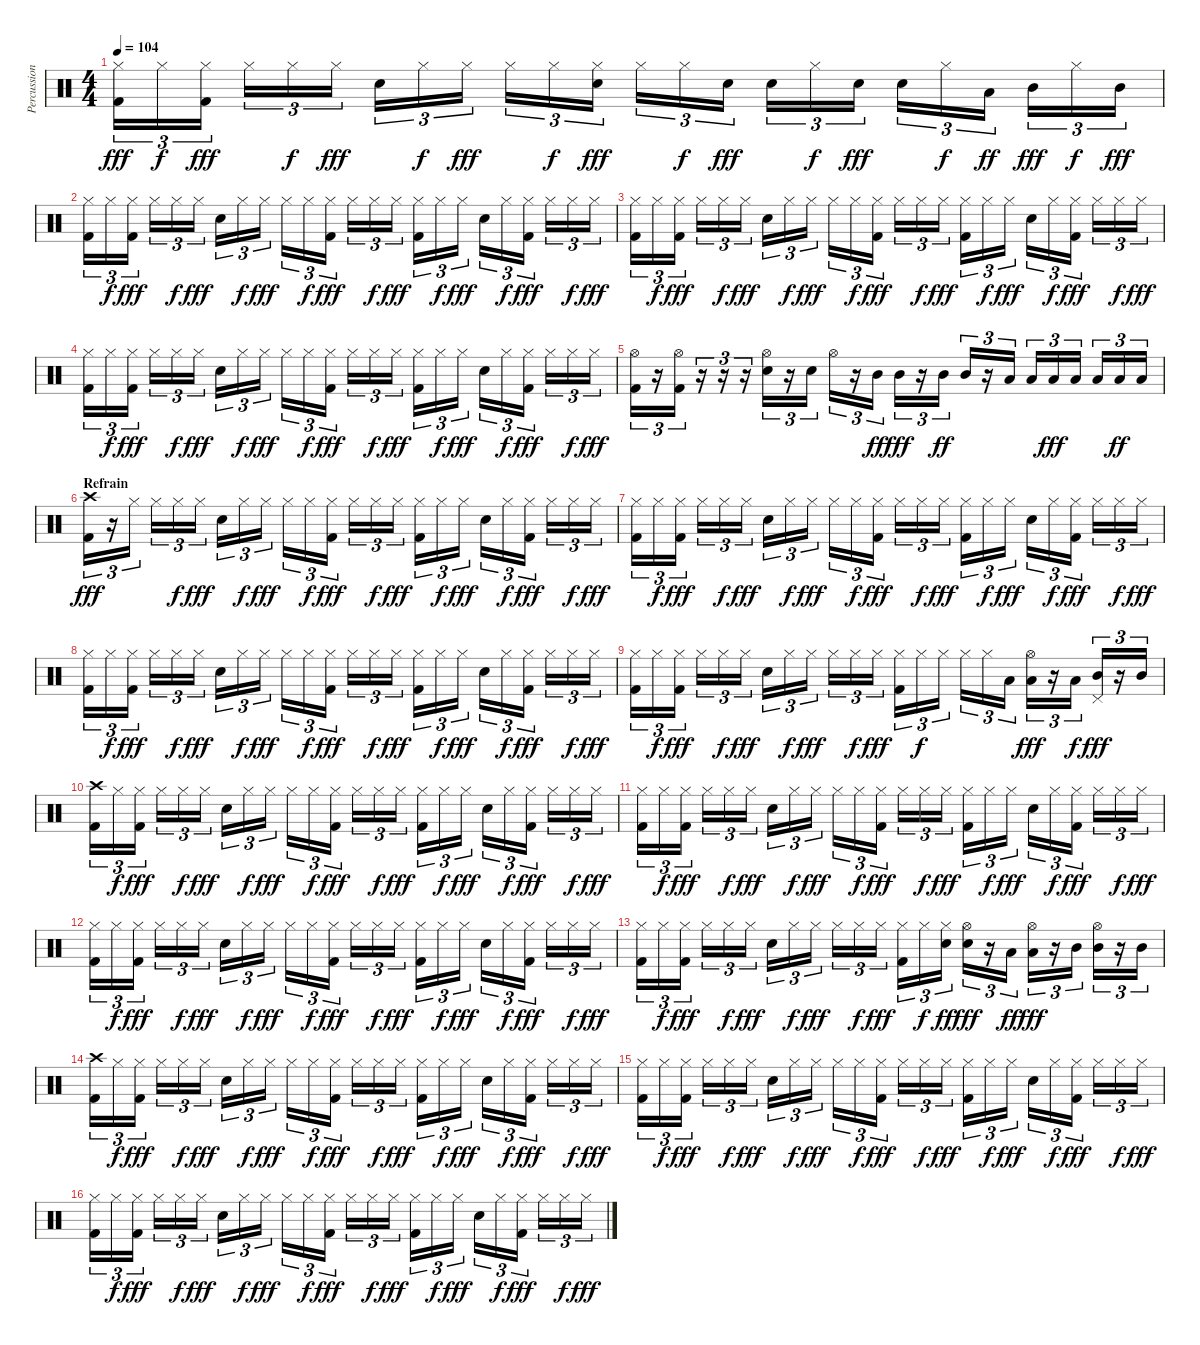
\track ("Percussions" "Percussion") {instrument percussion}
\staff {score}
\articulation defaults
\ts (4 4)
\tempo 104
\clef neutral
\ks c
("Hi-Hat (closed)" "Kick (hit) 2").16{tu (3 2) dy fff} "Hi-Hat (closed)".16{tu (3 2) dy f} ("Hi-Hat (closed)" "Kick (hit) 2").16{tu (3 2) dy fff} "Hi-Hat (closed)".16{tu (3 2)} "Hi-Hat (closed)".16{tu (3 2) dy f} "Hi-Hat (closed)".16{tu (3 2) dy fff} "Snare (hit) 2".16{tu (3 2)} "Hi-Hat (closed)".16{tu (3 2) dy f} "Hi-Hat (closed)".16{tu (3 2) dy fff} "Hi-Hat (closed)".16{tu (3 2)} "Hi-Hat (closed)".16{tu (3 2) dy f} ("Hi-Hat (closed)" "Snare (hit) 2").16{tu (3 2) dy fff} "Hi-Hat (closed)".16{tu (3 2)} "Hi-Hat (closed)".16{tu (3 2) dy f} "Snare (hit) 2".16{tu (3 2) dy fff} "Snare (hit) 2".16{tu (3 2)} "Hi-Hat (closed)".16{tu (3 2) dy f} "Snare (hit) 2".16{tu (3 2) dy fff} "Snare (hit) 2".16{tu (3 2)} "Hi-Hat (closed)".16{tu (3 2) dy f} "Low Tom (hit)".16{tu (3 2) dy ff} "Mid Tom (hit)".16{tu (3 2) dy fff} "Hi-Hat (closed)".16{tu (3 2) dy f} "Mid Tom (hit)".16{tu (3 2) dy fff} |
("Hi-Hat (closed)" "Kick (hit) 2").16{tu (3 2)} "Hi-Hat (closed)".16{tu (3 2) dy f} ("Hi-Hat (closed)" "Kick (hit) 2").16{tu (3 2) dy fff} "Hi-Hat (closed)".16{tu (3 2)} "Hi-Hat (closed)".16{tu (3 2) dy f} "Hi-Hat (closed)".16{tu (3 2) dy fff} "Snare (hit) 2".16{tu (3 2)} "Hi-Hat (closed)".16{tu (3 2) dy f} "Hi-Hat (closed)".16{tu (3 2) dy fff} "Hi-Hat (closed)".16{tu (3 2)} "Hi-Hat (closed)".16{tu (3 2) dy f} ("Hi-Hat (closed)" "Kick (hit) 2").16{tu (3 2) dy fff} "Hi-Hat (closed)".16{tu (3 2)} "Hi-Hat (closed)".16{tu (3 2) dy f} "Hi-Hat (closed)".16{tu (3 2) dy fff} ("Hi-Hat (closed)" "Kick (hit) 2").16{tu (3 2)} "Hi-Hat (closed)".16{tu (3 2) dy f} "Hi-Hat (closed)".16{tu (3 2) dy fff} "Snare (hit) 2".16{tu (3 2)} "Hi-Hat (closed)".16{tu (3 2) dy f} ("Hi-Hat (closed)" "Kick (hit) 2").16{tu (3 2) dy fff} "Hi-Hat (closed)".16{tu (3 2)} "Hi-Hat (closed)".16{tu (3 2) dy f} "Hi-Hat (closed)".16{tu (3 2) dy fff} |
("Hi-Hat (closed)" "Kick (hit) 2").16{tu (3 2)} "Hi-Hat (closed)".16{tu (3 2) dy f} ("Hi-Hat (closed)" "Kick (hit) 2").16{tu (3 2) dy fff} "Hi-Hat (closed)".16{tu (3 2)} "Hi-Hat (closed)".16{tu (3 2) dy f} "Hi-Hat (closed)".16{tu (3 2) dy fff} "Snare (hit) 2".16{tu (3 2)} "Hi-Hat (closed)".16{tu (3 2) dy f} "Hi-Hat (closed)".16{tu (3 2) dy fff} "Hi-Hat (closed)".16{tu (3 2)} "Hi-Hat (closed)".16{tu (3 2) dy f} ("Hi-Hat (closed)" "Kick (hit) 2").16{tu (3 2) dy fff} "Hi-Hat (closed)".16{tu (3 2)} "Hi-Hat (closed)".16{tu (3 2) dy f} "Hi-Hat (closed)".16{tu (3 2) dy fff} ("Hi-Hat (closed)" "Kick (hit) 2").16{tu (3 2)} "Hi-Hat (closed)".16{tu (3 2) dy f} "Hi-Hat (closed)".16{tu (3 2) dy fff} "Snare (hit) 2".16{tu (3 2)} "Hi-Hat (closed)".16{tu (3 2) dy f} ("Hi-Hat (closed)" "Kick (hit) 2").16{tu (3 2) dy fff} "Hi-Hat (closed)".16{tu (3 2)} "Hi-Hat (closed)".16{tu (3 2) dy f} "Hi-Hat (closed)".16{tu (3 2) dy fff} |
("Hi-Hat (closed)" "Kick (hit) 2").16{tu (3 2)} "Hi-Hat (closed)".16{tu (3 2) dy f} ("Hi-Hat (closed)" "Kick (hit) 2").16{tu (3 2) dy fff} "Hi-Hat (closed)".16{tu (3 2)} "Hi-Hat (closed)".16{tu (3 2) dy f} "Hi-Hat (closed)".16{tu (3 2) dy fff} "Snare (hit) 2".16{tu (3 2)} "Hi-Hat (closed)".16{tu (3 2) dy f} "Hi-Hat (closed)".16{tu (3 2) dy fff} "Hi-Hat (closed)".16{tu (3 2)} "Hi-Hat (closed)".16{tu (3 2) dy f} ("Hi-Hat (closed)" "Kick (hit) 2").16{tu (3 2) dy fff} "Hi-Hat (closed)".16{tu (3 2)} "Hi-Hat (closed)".16{tu (3 2) dy f} "Hi-Hat (closed)".16{tu (3 2) dy fff} ("Hi-Hat (closed)" "Kick (hit) 2").16{tu (3 2)} "Hi-Hat (closed)".16{tu (3 2) dy f} "Hi-Hat (closed)".16{tu (3 2) dy fff} "Snare (hit) 2".16{tu (3 2)} "Hi-Hat (closed)".16{tu (3 2) dy f} ("Hi-Hat (closed)" "Kick (hit) 2").16{tu (3 2) dy fff} "Hi-Hat (closed)".16{tu (3 2)} "Hi-Hat (closed)".16{tu (3 2) dy f} "Hi-Hat (closed)".16{tu (3 2) dy fff} |
("Hi-Hat (open)" "Kick (hit) 2").16{tu (3 2)} r.16{tu (3 2)} ("Hi-Hat (open)" "Kick (hit) 2").16{tu (3 2)} r.16{tu (3 2)} r.16{tu (3 2)} r.16{tu (3 2)} ("Hi-Hat (open)" "Snare (hit) 2").16{tu (3 2)} r.16{tu (3 2)} "Snare (hit) 2".16{tu (3 2)} "Hi-Hat (open)".16{tu (3 2)} r.16{tu (3 2)} "Mid Tom (hit)".16{tu (3 2) dy ff} "Mid Tom (hit)".16{tu (3 2) dy fff} r.16{tu (3 2)} "Mid Tom (hit)".16{tu (3 2) dy ff} "Mid Tom (hit)".16{tu (3 2)} r.16{tu (3 2)} "Low Tom (hit)".16{tu (3 2)} "Low Tom (hit)".16{tu (3 2)} "Low Tom (hit)".16{tu (3 2) dy fff} "Low Tom (hit)".16{tu (3 2)} "Low Floor Tom (hit)".16{tu (3 2)} "Low Floor Tom (hit)".16{tu (3 2) dy ff} "Low Floor Tom (hit)".16{tu (3 2)} |
\section ("" "Refrain")
("Crash high (hit)" "Kick (hit) 2").16{tu (3 2) dy fff} r.16{tu (3 2)} "Hi-Hat (closed)".16{tu (3 2)} "Hi-Hat (closed)".16{tu (3 2)} "Hi-Hat (closed)".16{tu (3 2) dy f} "Hi-Hat (closed)".16{tu (3 2) dy fff} "Snare (hit) 2".16{tu (3 2)} "Hi-Hat (closed)".16{tu (3 2) dy f} "Hi-Hat (closed)".16{tu (3 2) dy fff} "Hi-Hat (closed)".16{tu (3 2)} "Hi-Hat (closed)".16{tu (3 2) dy f} ("Hi-Hat (closed)" "Kick (hit) 2").16{tu (3 2) dy fff} "Hi-Hat (closed)".16{tu (3 2)} "Hi-Hat (closed)".16{tu (3 2) dy f} "Hi-Hat (closed)".16{tu (3 2) dy fff} ("Hi-Hat (closed)" "Kick (hit) 2").16{tu (3 2)} "Hi-Hat (closed)".16{tu (3 2) dy f} "Hi-Hat (closed)".16{tu (3 2) dy fff} "Snare (hit) 2".16{tu (3 2)} "Hi-Hat (closed)".16{tu (3 2) dy f} ("Hi-Hat (closed)" "Kick (hit) 2").16{tu (3 2) dy fff} "Hi-Hat (closed)".16{tu (3 2)} "Hi-Hat (closed)".16{tu (3 2) dy f} "Hi-Hat (closed)".16{tu (3 2) dy fff} |
("Hi-Hat (closed)" "Kick (hit) 2").16{tu (3 2)} "Hi-Hat (closed)".16{tu (3 2) dy f} ("Hi-Hat (closed)" "Kick (hit) 2").16{tu (3 2) dy fff} "Hi-Hat (closed)".16{tu (3 2)} "Hi-Hat (closed)".16{tu (3 2) dy f} "Hi-Hat (closed)".16{tu (3 2) dy fff} "Snare (hit) 2".16{tu (3 2)} "Hi-Hat (closed)".16{tu (3 2) dy f} "Hi-Hat (closed)".16{tu (3 2) dy fff} "Hi-Hat (closed)".16{tu (3 2)} "Hi-Hat (closed)".16{tu (3 2) dy f} ("Hi-Hat (closed)" "Kick (hit) 2").16{tu (3 2) dy fff} "Hi-Hat (closed)".16{tu (3 2)} "Hi-Hat (closed)".16{tu (3 2) dy f} "Hi-Hat (closed)".16{tu (3 2) dy fff} ("Hi-Hat (closed)" "Kick (hit) 2").16{tu (3 2)} "Hi-Hat (closed)".16{tu (3 2) dy f} "Hi-Hat (closed)".16{tu (3 2) dy fff} "Snare (hit) 2".16{tu (3 2)} "Hi-Hat (closed)".16{tu (3 2) dy f} ("Hi-Hat (closed)" "Kick (hit) 2").16{tu (3 2) dy fff} "Hi-Hat (closed)".16{tu (3 2)} "Hi-Hat (closed)".16{tu (3 2) dy f} "Hi-Hat (closed)".16{tu (3 2) dy fff} |
("Hi-Hat (closed)" "Kick (hit) 2").16{tu (3 2)} "Hi-Hat (closed)".16{tu (3 2) dy f} ("Hi-Hat (closed)" "Kick (hit) 2").16{tu (3 2) dy fff} "Hi-Hat (closed)".16{tu (3 2)} "Hi-Hat (closed)".16{tu (3 2) dy f} "Hi-Hat (closed)".16{tu (3 2) dy fff} "Snare (hit) 2".16{tu (3 2)} "Hi-Hat (closed)".16{tu (3 2) dy f} "Hi-Hat (closed)".16{tu (3 2) dy fff} "Hi-Hat (closed)".16{tu (3 2)} "Hi-Hat (closed)".16{tu (3 2) dy f} ("Hi-Hat (closed)" "Kick (hit) 2").16{tu (3 2) dy fff} "Hi-Hat (closed)".16{tu (3 2)} "Hi-Hat (closed)".16{tu (3 2) dy f} "Hi-Hat (closed)".16{tu (3 2) dy fff} ("Hi-Hat (closed)" "Kick (hit) 2").16{tu (3 2)} "Hi-Hat (closed)".16{tu (3 2) dy f} "Hi-Hat (closed)".16{tu (3 2) dy fff} "Snare (hit) 2".16{tu (3 2)} "Hi-Hat (closed)".16{tu (3 2) dy f} ("Hi-Hat (closed)" "Kick (hit) 2").16{tu (3 2) dy fff} "Hi-Hat (closed)".16{tu (3 2)} "Hi-Hat (closed)".16{tu (3 2) dy f} "Hi-Hat (closed)".16{tu (3 2) dy fff} |
("Hi-Hat (closed)" "Kick (hit) 2").16{tu (3 2)} "Hi-Hat (closed)".16{tu (3 2) dy f} ("Hi-Hat (closed)" "Kick (hit) 2").16{tu (3 2) dy fff} "Hi-Hat (closed)".16{tu (3 2)} "Hi-Hat (closed)".16{tu (3 2) dy f} "Hi-Hat (closed)".16{tu (3 2) dy fff} "Snare (hit) 2".16{tu (3 2)} "Hi-Hat (closed)".16{tu (3 2) dy f} "Hi-Hat (closed)".16{tu (3 2) dy fff} "Hi-Hat (closed)".16{tu (3 2)} "Hi-Hat (closed)".16{tu (3 2) dy f} "Hi-Hat (closed)".16{tu (3 2) dy fff} ("Hi-Hat (closed)" "Kick (hit) 2").16{tu (3 2)} "Hi-Hat (closed)".16{tu (3 2) dy f} "Hi-Hat (closed)".16{tu (3 2)} "Hi-Hat (closed)".16{tu (3 2)} "Hi-Hat (closed)".16{tu (3 2)} "Low Tom (hit)".16{tu (3 2)} ("Hi-Hat (open)" "Low Tom (hit)").16{tu (3 2) dy fff} r.16{tu (3 2)} "Low Tom (hit)".16{tu (3 2) dy f} ("Pedal Hi-Hat (hit)" "Mid Tom (hit)").16{tu (3 2) dy fff} r.16{tu (3 2)} "Mid Tom (hit)".16{tu (3 2)} |
("Crash high (hit)" "Kick (hit) 2").16{tu (3 2)} "Hi-Hat (closed)".16{tu (3 2) dy f} ("Hi-Hat (closed)" "Kick (hit) 2").16{tu (3 2) dy fff} "Hi-Hat (closed)".16{tu (3 2)} "Hi-Hat (closed)".16{tu (3 2) dy f} "Hi-Hat (closed)".16{tu (3 2) dy fff} "Snare (hit) 2".16{tu (3 2)} "Hi-Hat (closed)".16{tu (3 2) dy f} "Hi-Hat (closed)".16{tu (3 2) dy fff} "Hi-Hat (closed)".16{tu (3 2)} "Hi-Hat (closed)".16{tu (3 2) dy f} ("Hi-Hat (closed)" "Kick (hit) 2").16{tu (3 2) dy fff} "Hi-Hat (closed)".16{tu (3 2)} "Hi-Hat (closed)".16{tu (3 2) dy f} "Hi-Hat (closed)".16{tu (3 2) dy fff} ("Hi-Hat (closed)" "Kick (hit) 2").16{tu (3 2)} "Hi-Hat (closed)".16{tu (3 2) dy f} "Hi-Hat (closed)".16{tu (3 2) dy fff} "Snare (hit) 2".16{tu (3 2)} "Hi-Hat (closed)".16{tu (3 2) dy f} ("Hi-Hat (closed)" "Kick (hit) 2").16{tu (3 2) dy fff} "Hi-Hat (closed)".16{tu (3 2)} "Hi-Hat (closed)".16{tu (3 2) dy f} "Hi-Hat (closed)".16{tu (3 2) dy fff} |
("Hi-Hat (closed)" "Kick (hit) 2").16{tu (3 2)} "Hi-Hat (closed)".16{tu (3 2) dy f} ("Hi-Hat (closed)" "Kick (hit) 2").16{tu (3 2) dy fff} "Hi-Hat (closed)".16{tu (3 2)} "Hi-Hat (closed)".16{tu (3 2) dy f} "Hi-Hat (closed)".16{tu (3 2) dy fff} "Snare (hit) 2".16{tu (3 2)} "Hi-Hat (closed)".16{tu (3 2) dy f} "Hi-Hat (closed)".16{tu (3 2) dy fff} "Hi-Hat (closed)".16{tu (3 2)} "Hi-Hat (closed)".16{tu (3 2) dy f} ("Hi-Hat (closed)" "Kick (hit) 2").16{tu (3 2) dy fff} "Hi-Hat (closed)".16{tu (3 2)} "Hi-Hat (closed)".16{tu (3 2) dy f} "Hi-Hat (closed)".16{tu (3 2) dy fff} ("Hi-Hat (closed)" "Kick (hit) 2").16{tu (3 2)} "Hi-Hat (closed)".16{tu (3 2) dy f} "Hi-Hat (closed)".16{tu (3 2) dy fff} "Snare (hit) 2".16{tu (3 2)} "Hi-Hat (closed)".16{tu (3 2) dy f} ("Hi-Hat (closed)" "Kick (hit) 2").16{tu (3 2) dy fff} "Hi-Hat (closed)".16{tu (3 2)} "Hi-Hat (closed)".16{tu (3 2) dy f} "Hi-Hat (closed)".16{tu (3 2) dy fff} |
("Hi-Hat (closed)" "Kick (hit) 2").16{tu (3 2)} "Hi-Hat (closed)".16{tu (3 2) dy f} ("Hi-Hat (closed)" "Kick (hit) 2").16{tu (3 2) dy fff} "Hi-Hat (closed)".16{tu (3 2)} "Hi-Hat (closed)".16{tu (3 2) dy f} "Hi-Hat (closed)".16{tu (3 2) dy fff} "Snare (hit) 2".16{tu (3 2)} "Hi-Hat (closed)".16{tu (3 2) dy f} "Hi-Hat (closed)".16{tu (3 2) dy fff} "Hi-Hat (closed)".16{tu (3 2)} "Hi-Hat (closed)".16{tu (3 2) dy f} ("Hi-Hat (closed)" "Kick (hit) 2").16{tu (3 2) dy fff} "Hi-Hat (closed)".16{tu (3 2)} "Hi-Hat (closed)".16{tu (3 2) dy f} "Hi-Hat (closed)".16{tu (3 2) dy fff} ("Hi-Hat (closed)" "Kick (hit) 2").16{tu (3 2)} "Hi-Hat (closed)".16{tu (3 2) dy f} "Hi-Hat (closed)".16{tu (3 2) dy fff} "Snare (hit) 2".16{tu (3 2)} "Hi-Hat (closed)".16{tu (3 2) dy f} ("Hi-Hat (closed)" "Kick (hit) 2").16{tu (3 2) dy fff} "Hi-Hat (closed)".16{tu (3 2)} "Hi-Hat (closed)".16{tu (3 2) dy f} "Hi-Hat (closed)".16{tu (3 2) dy fff} |
("Hi-Hat (closed)" "Kick (hit) 2").16{tu (3 2)} "Hi-Hat (closed)".16{tu (3 2) dy f} ("Hi-Hat (closed)" "Kick (hit) 2").16{tu (3 2) dy fff} "Hi-Hat (closed)".16{tu (3 2)} "Hi-Hat (closed)".16{tu (3 2) dy f} "Hi-Hat (closed)".16{tu (3 2) dy fff} "Snare (hit) 2".16{tu (3 2)} "Hi-Hat (closed)".16{tu (3 2) dy f} "Hi-Hat (closed)".16{tu (3 2) dy fff} "Hi-Hat (closed)".16{tu (3 2)} "Hi-Hat (closed)".16{tu (3 2) dy f} "Hi-Hat (closed)".16{tu (3 2) dy fff} ("Hi-Hat (closed)" "Kick (hit) 2").16{tu (3 2)} "Hi-Hat (closed)".16{tu (3 2) dy f} ("Hi-Hat (closed)" "Snare (hit) 2").16{tu (3 2) dy ff} ("Hi-Hat (open)" "Snare (hit) 2").16{tu (3 2) dy fff} r.16{tu (3 2)} "Low Tom (hit)".16{tu (3 2) dy ff} ("Hi-Hat (open)" "Low Tom (hit)").16{tu (3 2) dy fff} r.16{tu (3 2)} "Mid Tom (hit)".16{tu (3 2)} ("Hi-Hat (open)" "Mid Tom (hit)").16{tu (3 2)} r.16{tu (3 2)} "Mid Tom (hit)".16{tu (3 2)} |
("Crash high (hit)" "Kick (hit) 2").16{tu (3 2)} "Hi-Hat (closed)".16{tu (3 2) dy f} ("Hi-Hat (closed)" "Kick (hit) 2").16{tu (3 2) dy fff} "Hi-Hat (closed)".16{tu (3 2)} "Hi-Hat (closed)".16{tu (3 2) dy f} "Hi-Hat (closed)".16{tu (3 2) dy fff} "Snare (hit) 2".16{tu (3 2)} "Hi-Hat (closed)".16{tu (3 2) dy f} "Hi-Hat (closed)".16{tu (3 2) dy fff} "Hi-Hat (closed)".16{tu (3 2)} "Hi-Hat (closed)".16{tu (3 2) dy f} ("Hi-Hat (closed)" "Kick (hit) 2").16{tu (3 2) dy fff} "Hi-Hat (closed)".16{tu (3 2)} "Hi-Hat (closed)".16{tu (3 2) dy f} "Hi-Hat (closed)".16{tu (3 2) dy fff} ("Hi-Hat (closed)" "Kick (hit) 2").16{tu (3 2)} "Hi-Hat (closed)".16{tu (3 2) dy f} "Hi-Hat (closed)".16{tu (3 2) dy fff} "Snare (hit) 2".16{tu (3 2)} "Hi-Hat (closed)".16{tu (3 2) dy f} ("Hi-Hat (closed)" "Kick (hit) 2").16{tu (3 2) dy fff} "Hi-Hat (closed)".16{tu (3 2)} "Hi-Hat (closed)".16{tu (3 2) dy f} "Hi-Hat (closed)".16{tu (3 2) dy fff} |
("Hi-Hat (closed)" "Kick (hit) 2").16{tu (3 2)} "Hi-Hat (closed)".16{tu (3 2) dy f} ("Hi-Hat (closed)" "Kick (hit) 2").16{tu (3 2) dy fff} "Hi-Hat (closed)".16{tu (3 2)} "Hi-Hat (closed)".16{tu (3 2) dy f} "Hi-Hat (closed)".16{tu (3 2) dy fff} "Snare (hit) 2".16{tu (3 2)} "Hi-Hat (closed)".16{tu (3 2) dy f} "Hi-Hat (closed)".16{tu (3 2) dy fff} "Hi-Hat (closed)".16{tu (3 2)} "Hi-Hat (closed)".16{tu (3 2) dy f} ("Hi-Hat (closed)" "Kick (hit) 2").16{tu (3 2) dy fff} "Hi-Hat (closed)".16{tu (3 2)} "Hi-Hat (closed)".16{tu (3 2) dy f} "Hi-Hat (closed)".16{tu (3 2) dy fff} ("Hi-Hat (closed)" "Kick (hit) 2").16{tu (3 2)} "Hi-Hat (closed)".16{tu (3 2) dy f} "Hi-Hat (closed)".16{tu (3 2) dy fff} "Snare (hit) 2".16{tu (3 2)} "Hi-Hat (closed)".16{tu (3 2) dy f} ("Hi-Hat (closed)" "Kick (hit) 2").16{tu (3 2) dy fff} "Hi-Hat (closed)".16{tu (3 2)} "Hi-Hat (closed)".16{tu (3 2) dy f} "Hi-Hat (closed)".16{tu (3 2) dy fff} |
("Hi-Hat (closed)" "Kick (hit) 2").16{tu (3 2)} "Hi-Hat (closed)".16{tu (3 2) dy f} ("Hi-Hat (closed)" "Kick (hit) 2").16{tu (3 2) dy fff} "Hi-Hat (closed)".16{tu (3 2)} "Hi-Hat (closed)".16{tu (3 2) dy f} "Hi-Hat (closed)".16{tu (3 2) dy fff} "Snare (hit) 2".16{tu (3 2)} "Hi-Hat (closed)".16{tu (3 2) dy f} "Hi-Hat (closed)".16{tu (3 2) dy fff} "Hi-Hat (closed)".16{tu (3 2)} "Hi-Hat (closed)".16{tu (3 2) dy f} ("Hi-Hat (closed)" "Kick (hit) 2").16{tu (3 2) dy fff} "Hi-Hat (closed)".16{tu (3 2)} "Hi-Hat (closed)".16{tu (3 2) dy f} "Hi-Hat (closed)".16{tu (3 2) dy fff} ("Hi-Hat (closed)" "Kick (hit) 2").16{tu (3 2)} "Hi-Hat (closed)".16{tu (3 2) dy f} "Hi-Hat (closed)".16{tu (3 2) dy fff} "Snare (hit) 2".16{tu (3 2)} "Hi-Hat (closed)".16{tu (3 2) dy f} ("Hi-Hat (closed)" "Kick (hit) 2").16{tu (3 2) dy fff} "Hi-Hat (closed)".16{tu (3 2)} "Hi-Hat (closed)".16{tu (3 2) dy f} "Hi-Hat (closed)".16{tu (3 2) dy fff}
